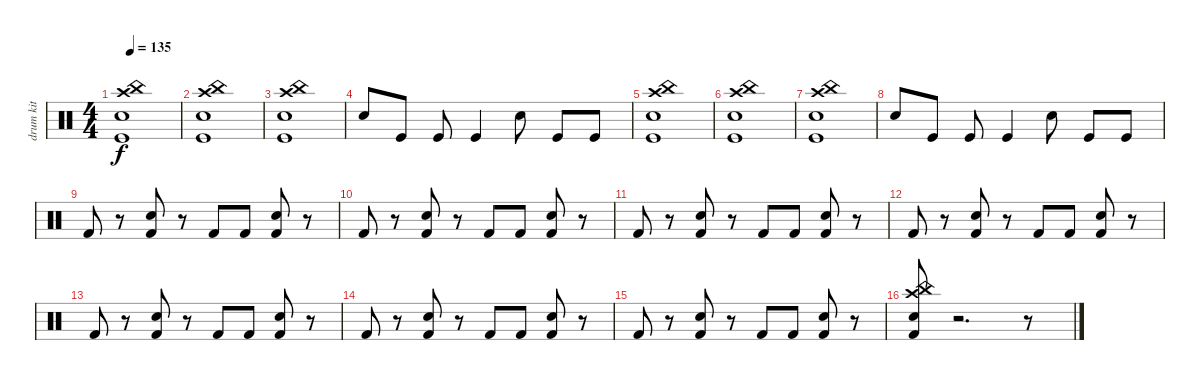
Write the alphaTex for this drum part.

\track ("drum kit" "drum kit") {instrument percussion}
\staff {score}
\articulation defaults
\ts (4 4)
\tempo 135
\clef neutral
\ks c
("Snare (hit) 2" "Crash high (hit)" "China (hit)" "Kick (hit)").1{dy f} |
("Snare (hit) 2" "Crash high (hit)" "China (hit)" "Kick (hit)").1 |
("Snare (hit) 2" "Crash high (hit)" "China (hit)" "Kick (hit)").1 |
"Snare (hit) 2".8 "Kick (hit)".8 "Kick (hit)".8 "Kick (hit)".4 "Snare (hit) 2".8 "Kick (hit)".8 "Kick (hit)".8 |
("Snare (hit) 2" "Crash high (hit)" "China (hit)" "Kick (hit)").1 |
("Snare (hit) 2" "Crash high (hit)" "China (hit)" "Kick (hit)").1 |
("Snare (hit) 2" "Crash high (hit)" "China (hit)" "Kick (hit)").1 |
"Snare (hit) 2".8 "Kick (hit)".8 "Kick (hit)".8 "Kick (hit)".4 "Snare (hit) 2".8 "Kick (hit)".8 "Kick (hit)".8 |
"Kick (hit) 2".8 r.8 ("Snare (hit) 2" "Kick (hit) 2").8 r.8 "Kick (hit) 2".8 "Kick (hit) 2".8 ("Snare (hit) 2" "Kick (hit) 2").8 r.8 |
"Kick (hit) 2".8 r.8 ("Snare (hit) 2" "Kick (hit) 2").8 r.8 "Kick (hit) 2".8 "Kick (hit) 2".8 ("Snare (hit) 2" "Kick (hit) 2").8 r.8 |
"Kick (hit) 2".8 r.8 ("Snare (hit) 2" "Kick (hit) 2").8 r.8 "Kick (hit) 2".8 "Kick (hit) 2".8 ("Snare (hit) 2" "Kick (hit) 2").8 r.8 |
"Kick (hit) 2".8 r.8 ("Snare (hit) 2" "Kick (hit) 2").8 r.8 "Kick (hit) 2".8 "Kick (hit) 2".8 ("Snare (hit) 2" "Kick (hit) 2").8 r.8 |
"Kick (hit) 2".8 r.8 ("Snare (hit) 2" "Kick (hit) 2").8 r.8 "Kick (hit) 2".8 "Kick (hit) 2".8 ("Snare (hit) 2" "Kick (hit) 2").8 r.8 |
"Kick (hit) 2".8 r.8 ("Snare (hit) 2" "Kick (hit) 2").8 r.8 "Kick (hit) 2".8 "Kick (hit) 2".8 ("Snare (hit) 2" "Kick (hit) 2").8 r.8 |
"Kick (hit) 2".8 r.8 ("Snare (hit) 2" "Kick (hit) 2").8 r.8 "Kick (hit) 2".8 "Kick (hit) 2".8 ("Snare (hit) 2" "Kick (hit) 2").8 r.8 |
("Snare (hit) 2" "China (hit)" "Crash high (hit)" "Kick (hit) 2").8 r.2{d} r.8
